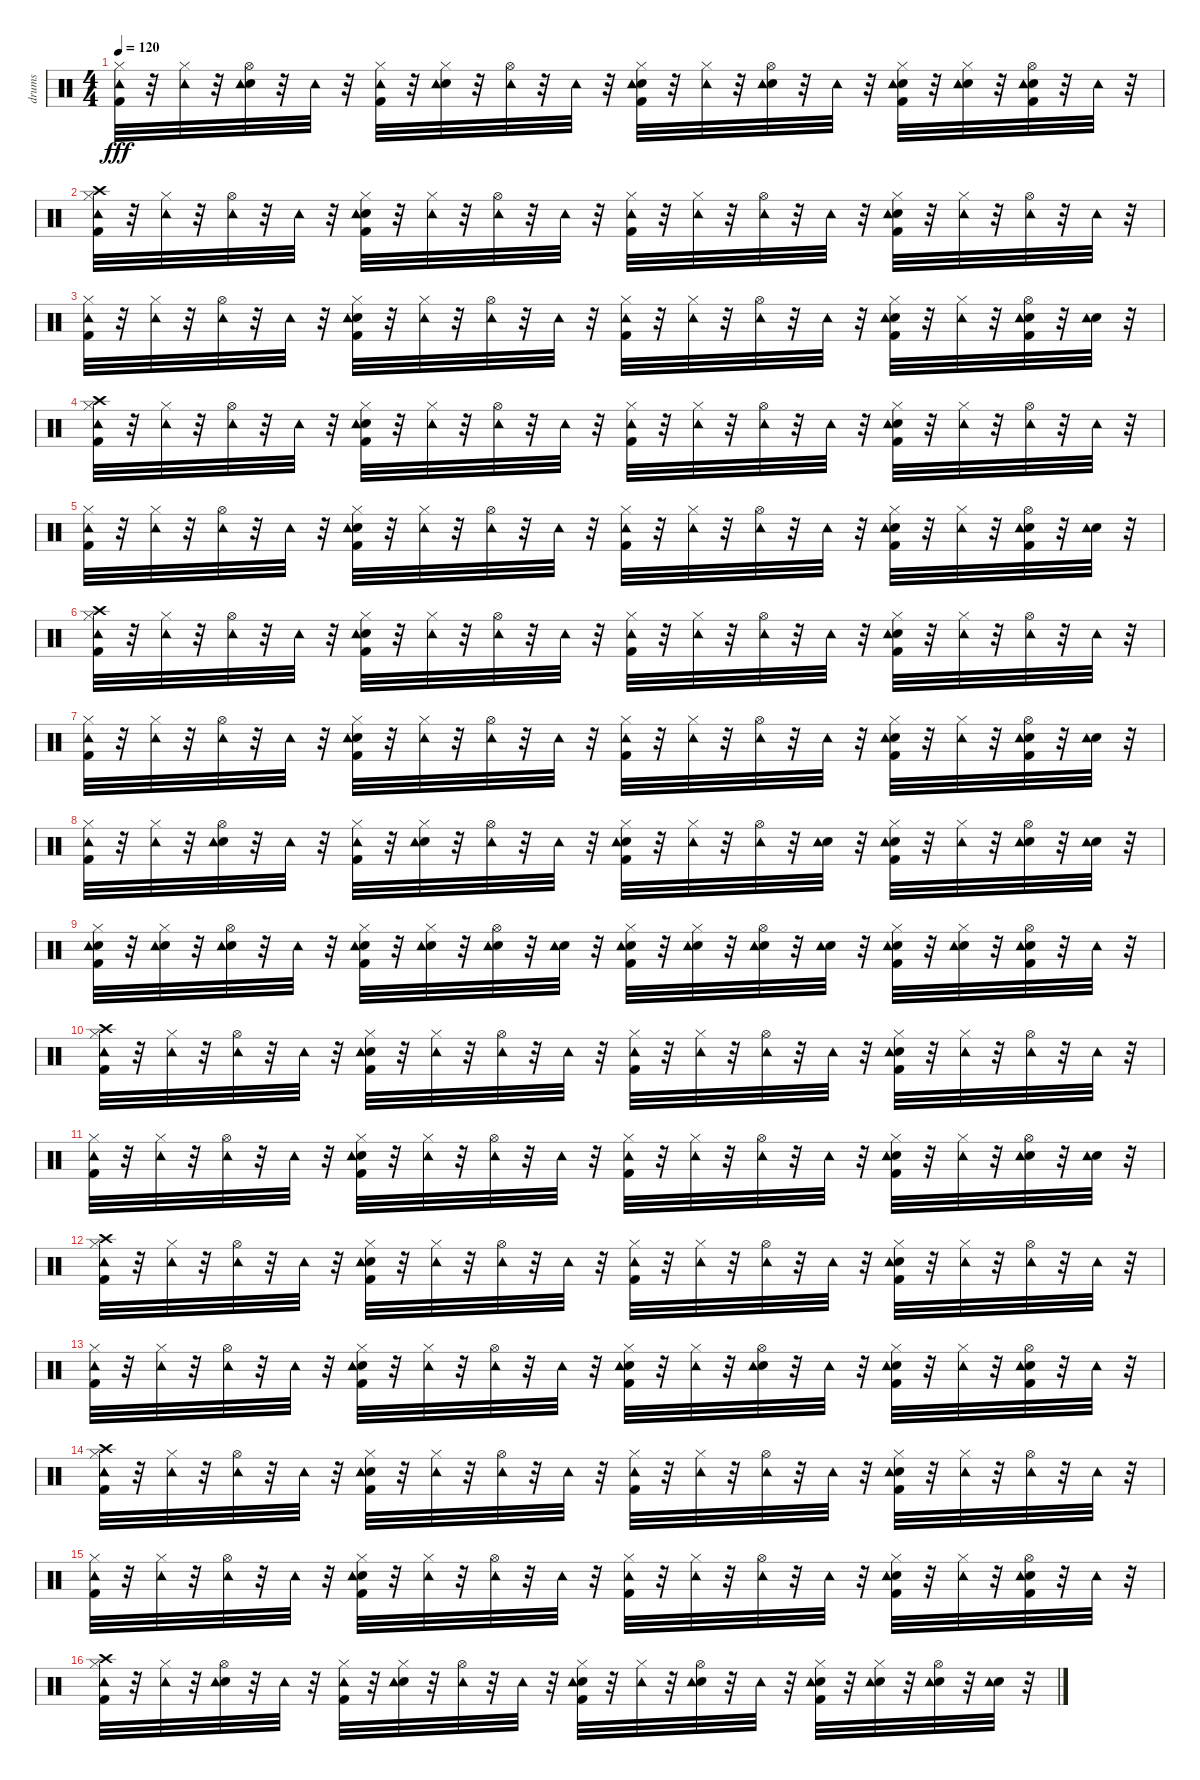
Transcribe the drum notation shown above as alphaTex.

\track ("drums" "drums") {instrument percussion}
\staff {score}
\articulation defaults
\ts (4 4)
\tempo 120
\clef neutral
\ks c
("Kick (hit) 2" "Hi-Hat (closed)" "Tambourine (hit)").32{dy fff} r.32 ("Hi-Hat (closed)" "Tambourine (hit)").32 r.32 ("Snare (hit) 2" "Hi-Hat (open)" "Tambourine (hit)").32 r.32 "Tambourine (hit)".32 r.32 ("Kick (hit) 2" "Hi-Hat (closed)" "Tambourine (hit)").32 r.32 ("Snare (hit) 2" "Hi-Hat (closed)" "Tambourine (hit)").32 r.32 ("Hi-Hat (open)" "Tambourine (hit)").32 r.32 "Tambourine (hit)".32 r.32 ("Kick (hit) 2" "Snare (hit) 2" "Hi-Hat (closed)" "Tambourine (hit)").32 r.32 ("Hi-Hat (closed)" "Tambourine (hit)").32 r.32 ("Snare (hit) 2" "Hi-Hat (open)" "Tambourine (hit)").32 r.32 "Tambourine (hit)".32 r.32 ("Snare (hit) 2" "Kick (hit) 2" "Hi-Hat (closed)" "Tambourine (hit)").32 r.32 ("Snare (hit) 2" "Hi-Hat (closed)" "Tambourine (hit)").32 r.32 ("Kick (hit) 2" "Snare (hit) 2" "Hi-Hat (open)" "Tambourine (hit)").32 r.32 "Tambourine (hit)".32 r.32 |
("Crash high (hit)" "Kick (hit) 2" "Hi-Hat (closed)" "Tambourine (hit)").32 r.32 ("Hi-Hat (closed)" "Tambourine (hit)").32 r.32 ("Hi-Hat (open)" "Tambourine (hit)").32 r.32 "Tambourine (hit)".32 r.32 ("Snare (hit) 2" "Kick (hit) 2" "Hi-Hat (closed)" "Tambourine (hit)").32 r.32 ("Hi-Hat (closed)" "Tambourine (hit)").32 r.32 ("Hi-Hat (open)" "Tambourine (hit)").32 r.32 "Tambourine (hit)".32 r.32 ("Kick (hit) 2" "Hi-Hat (closed)" "Tambourine (hit)").32 r.32 ("Hi-Hat (closed)" "Tambourine (hit)").32 r.32 ("Hi-Hat (open)" "Tambourine (hit)").32 r.32 "Tambourine (hit)".32 r.32 ("Snare (hit) 2" "Kick (hit) 2" "Hi-Hat (closed)" "Tambourine (hit)").32 r.32 ("Hi-Hat (closed)" "Tambourine (hit)").32 r.32 ("Hi-Hat (open)" "Tambourine (hit)").32 r.32 "Tambourine (hit)".32 r.32 |
("Kick (hit) 2" "Hi-Hat (closed)" "Tambourine (hit)").32 r.32 ("Hi-Hat (closed)" "Tambourine (hit)").32 r.32 ("Hi-Hat (open)" "Tambourine (hit)").32 r.32 "Tambourine (hit)".32 r.32 ("Snare (hit) 2" "Kick (hit) 2" "Hi-Hat (closed)" "Tambourine (hit)").32 r.32 ("Hi-Hat (closed)" "Tambourine (hit)").32 r.32 ("Hi-Hat (open)" "Tambourine (hit)").32 r.32 "Tambourine (hit)".32 r.32 ("Kick (hit) 2" "Hi-Hat (closed)" "Tambourine (hit)").32 r.32 ("Hi-Hat (closed)" "Tambourine (hit)").32 r.32 ("Hi-Hat (open)" "Tambourine (hit)").32 r.32 "Tambourine (hit)".32 r.32 ("Snare (hit) 2" "Kick (hit) 2" "Hi-Hat (closed)" "Tambourine (hit)").32 r.32 ("Hi-Hat (closed)" "Tambourine (hit)").32 r.32 ("Kick (hit) 2" "Snare (hit) 2" "Hi-Hat (open)" "Tambourine (hit)").32 r.32 ("Snare (hit) 2" "Tambourine (hit)").32 r.32 |
("Crash high (hit)" "Kick (hit) 2" "Hi-Hat (closed)" "Tambourine (hit)").32 r.32 ("Hi-Hat (closed)" "Tambourine (hit)").32 r.32 ("Hi-Hat (open)" "Tambourine (hit)").32 r.32 "Tambourine (hit)".32 r.32 ("Snare (hit) 2" "Kick (hit) 2" "Hi-Hat (closed)" "Tambourine (hit)").32 r.32 ("Hi-Hat (closed)" "Tambourine (hit)").32 r.32 ("Hi-Hat (open)" "Tambourine (hit)").32 r.32 "Tambourine (hit)".32 r.32 ("Kick (hit) 2" "Hi-Hat (closed)" "Tambourine (hit)").32 r.32 ("Hi-Hat (closed)" "Tambourine (hit)").32 r.32 ("Hi-Hat (open)" "Tambourine (hit)").32 r.32 "Tambourine (hit)".32 r.32 ("Snare (hit) 2" "Kick (hit) 2" "Hi-Hat (closed)" "Tambourine (hit)").32 r.32 ("Hi-Hat (closed)" "Tambourine (hit)").32 r.32 ("Hi-Hat (open)" "Tambourine (hit)").32 r.32 "Tambourine (hit)".32 r.32 |
("Kick (hit) 2" "Hi-Hat (closed)" "Tambourine (hit)").32 r.32 ("Hi-Hat (closed)" "Tambourine (hit)").32 r.32 ("Hi-Hat (open)" "Tambourine (hit)").32 r.32 "Tambourine (hit)".32 r.32 ("Snare (hit) 2" "Kick (hit) 2" "Hi-Hat (closed)" "Tambourine (hit)").32 r.32 ("Hi-Hat (closed)" "Tambourine (hit)").32 r.32 ("Hi-Hat (open)" "Tambourine (hit)").32 r.32 "Tambourine (hit)".32 r.32 ("Kick (hit) 2" "Hi-Hat (closed)" "Tambourine (hit)").32 r.32 ("Hi-Hat (closed)" "Tambourine (hit)").32 r.32 ("Hi-Hat (open)" "Tambourine (hit)").32 r.32 "Tambourine (hit)".32 r.32 ("Snare (hit) 2" "Kick (hit) 2" "Hi-Hat (closed)" "Tambourine (hit)").32 r.32 ("Hi-Hat (closed)" "Tambourine (hit)").32 r.32 ("Kick (hit) 2" "Snare (hit) 2" "Hi-Hat (open)" "Tambourine (hit)").32 r.32 ("Snare (hit) 2" "Tambourine (hit)").32 r.32 |
("Crash high (hit)" "Kick (hit) 2" "Hi-Hat (closed)" "Tambourine (hit)").32 r.32 ("Hi-Hat (closed)" "Tambourine (hit)").32 r.32 ("Hi-Hat (open)" "Tambourine (hit)").32 r.32 "Tambourine (hit)".32 r.32 ("Snare (hit) 2" "Kick (hit) 2" "Hi-Hat (closed)" "Tambourine (hit)").32 r.32 ("Hi-Hat (closed)" "Tambourine (hit)").32 r.32 ("Hi-Hat (open)" "Tambourine (hit)").32 r.32 "Tambourine (hit)".32 r.32 ("Kick (hit) 2" "Hi-Hat (closed)" "Tambourine (hit)").32 r.32 ("Hi-Hat (closed)" "Tambourine (hit)").32 r.32 ("Hi-Hat (open)" "Tambourine (hit)").32 r.32 "Tambourine (hit)".32 r.32 ("Snare (hit) 2" "Kick (hit) 2" "Hi-Hat (closed)" "Tambourine (hit)").32 r.32 ("Hi-Hat (closed)" "Tambourine (hit)").32 r.32 ("Hi-Hat (open)" "Tambourine (hit)").32 r.32 "Tambourine (hit)".32 r.32 |
("Kick (hit) 2" "Hi-Hat (closed)" "Tambourine (hit)").32 r.32 ("Hi-Hat (closed)" "Tambourine (hit)").32 r.32 ("Hi-Hat (open)" "Tambourine (hit)").32 r.32 "Tambourine (hit)".32 r.32 ("Snare (hit) 2" "Kick (hit) 2" "Hi-Hat (closed)" "Tambourine (hit)").32 r.32 ("Hi-Hat (closed)" "Tambourine (hit)").32 r.32 ("Hi-Hat (open)" "Tambourine (hit)").32 r.32 "Tambourine (hit)".32 r.32 ("Kick (hit) 2" "Hi-Hat (closed)" "Tambourine (hit)").32 r.32 ("Hi-Hat (closed)" "Tambourine (hit)").32 r.32 ("Hi-Hat (open)" "Tambourine (hit)").32 r.32 "Tambourine (hit)".32 r.32 ("Snare (hit) 2" "Kick (hit) 2" "Hi-Hat (closed)" "Tambourine (hit)").32 r.32 ("Hi-Hat (closed)" "Tambourine (hit)").32 r.32 ("Kick (hit) 2" "Snare (hit) 2" "Hi-Hat (open)" "Tambourine (hit)").32 r.32 ("Snare (hit) 2" "Tambourine (hit)").32 r.32 |
("Kick (hit) 2" "Hi-Hat (closed)" "Tambourine (hit)").32 r.32 ("Hi-Hat (closed)" "Tambourine (hit)").32 r.32 ("Snare (hit) 2" "Hi-Hat (open)" "Tambourine (hit)").32 r.32 "Tambourine (hit)".32 r.32 ("Kick (hit) 2" "Hi-Hat (closed)" "Tambourine (hit)").32 r.32 ("Snare (hit) 2" "Hi-Hat (closed)" "Tambourine (hit)").32 r.32 ("Hi-Hat (open)" "Tambourine (hit)").32 r.32 "Tambourine (hit)".32 r.32 ("Kick (hit) 2" "Snare (hit) 2" "Hi-Hat (closed)" "Tambourine (hit)").32 r.32 ("Hi-Hat (closed)" "Tambourine (hit)").32 r.32 ("Hi-Hat (open)" "Tambourine (hit)").32 r.32 ("Snare (hit) 2" "Tambourine (hit)").32 r.32 ("Snare (hit) 2" "Kick (hit) 2" "Hi-Hat (closed)" "Tambourine (hit)").32 r.32 ("Hi-Hat (closed)" "Tambourine (hit)").32 r.32 ("Hi-Hat (open)" "Snare (hit) 2" "Tambourine (hit)").32 r.32 ("Snare (hit) 2" "Tambourine (hit)").32 r.32 |
("Kick (hit) 2" "Snare (hit) 2" "Hi-Hat (closed)" "Tambourine (hit)").32 r.32 ("Snare (hit) 2" "Hi-Hat (closed)" "Tambourine (hit)").32 r.32 ("Snare (hit) 2" "Hi-Hat (open)" "Tambourine (hit)").32 r.32 "Tambourine (hit)".32 r.32 ("Snare (hit) 2" "Kick (hit) 2" "Hi-Hat (closed)" "Tambourine (hit)").32 r.32 ("Snare (hit) 2" "Hi-Hat (closed)" "Tambourine (hit)").32 r.32 ("Snare (hit) 2" "Hi-Hat (open)" "Tambourine (hit)").32 r.32 ("Snare (hit) 2" "Tambourine (hit)").32 r.32 ("Kick (hit) 2" "Snare (hit) 2" "Hi-Hat (closed)" "Tambourine (hit)").32 r.32 ("Snare (hit) 2" "Hi-Hat (closed)" "Tambourine (hit)").32 r.32 ("Snare (hit) 2" "Hi-Hat (open)" "Tambourine (hit)").32 r.32 ("Snare (hit) 2" "Tambourine (hit)").32 r.32 ("Snare (hit) 2" "Kick (hit) 2" "Hi-Hat (closed)" "Tambourine (hit)").32 r.32 ("Snare (hit) 2" "Hi-Hat (closed)" "Tambourine (hit)").32 r.32 ("Kick (hit) 2" "Snare (hit) 2" "Hi-Hat (open)" "Tambourine (hit)").32 r.32 "Tambourine (hit)".32 r.32 |
("Crash high (hit)" "Kick (hit) 2" "Hi-Hat (closed)" "Tambourine (hit)").32 r.32 ("Hi-Hat (closed)" "Tambourine (hit)").32 r.32 ("Hi-Hat (open)" "Tambourine (hit)").32 r.32 "Tambourine (hit)".32 r.32 ("Snare (hit) 2" "Kick (hit) 2" "Hi-Hat (closed)" "Tambourine (hit)").32 r.32 ("Hi-Hat (closed)" "Tambourine (hit)").32 r.32 ("Hi-Hat (open)" "Tambourine (hit)").32 r.32 "Tambourine (hit)".32 r.32 ("Kick (hit) 2" "Hi-Hat (closed)" "Tambourine (hit)").32 r.32 ("Hi-Hat (closed)" "Tambourine (hit)").32 r.32 ("Hi-Hat (open)" "Tambourine (hit)").32 r.32 "Tambourine (hit)".32 r.32 ("Snare (hit) 2" "Kick (hit) 2" "Hi-Hat (closed)" "Tambourine (hit)").32 r.32 ("Hi-Hat (closed)" "Tambourine (hit)").32 r.32 ("Hi-Hat (open)" "Tambourine (hit)").32 r.32 "Tambourine (hit)".32 r.32 |
("Kick (hit) 2" "Hi-Hat (closed)" "Tambourine (hit)").32 r.32 ("Hi-Hat (closed)" "Tambourine (hit)").32 r.32 ("Hi-Hat (open)" "Tambourine (hit)").32 r.32 "Tambourine (hit)".32 r.32 ("Snare (hit) 2" "Kick (hit) 2" "Hi-Hat (closed)" "Tambourine (hit)").32 r.32 ("Hi-Hat (closed)" "Tambourine (hit)").32 r.32 ("Hi-Hat (open)" "Tambourine (hit)").32 r.32 "Tambourine (hit)".32 r.32 ("Kick (hit) 2" "Hi-Hat (closed)" "Tambourine (hit)").32 r.32 ("Hi-Hat (closed)" "Tambourine (hit)").32 r.32 ("Hi-Hat (open)" "Tambourine (hit)").32 r.32 "Tambourine (hit)".32 r.32 ("Snare (hit) 2" "Kick (hit) 2" "Hi-Hat (closed)" "Tambourine (hit)").32 r.32 ("Hi-Hat (closed)" "Tambourine (hit)").32 r.32 ("Snare (hit) 2" "Hi-Hat (open)" "Tambourine (hit)").32 r.32 ("Snare (hit) 2" "Tambourine (hit)").32 r.32 |
("Crash high (hit)" "Kick (hit) 2" "Hi-Hat (closed)" "Tambourine (hit)").32 r.32 ("Hi-Hat (closed)" "Tambourine (hit)").32 r.32 ("Hi-Hat (open)" "Tambourine (hit)").32 r.32 "Tambourine (hit)".32 r.32 ("Kick (hit) 2" "Snare (hit) 2" "Hi-Hat (closed)" "Tambourine (hit)").32 r.32 ("Hi-Hat (closed)" "Tambourine (hit)").32 r.32 ("Hi-Hat (open)" "Tambourine (hit)").32 r.32 "Tambourine (hit)".32 r.32 ("Kick (hit) 2" "Hi-Hat (closed)" "Tambourine (hit)").32 r.32 ("Hi-Hat (closed)" "Tambourine (hit)").32 r.32 ("Hi-Hat (open)" "Tambourine (hit)").32 r.32 "Tambourine (hit)".32 r.32 ("Kick (hit) 2" "Snare (hit) 2" "Hi-Hat (closed)" "Tambourine (hit)").32 r.32 ("Hi-Hat (closed)" "Tambourine (hit)").32 r.32 ("Hi-Hat (open)" "Tambourine (hit)").32 r.32 "Tambourine (hit)".32 r.32 |
("Kick (hit) 2" "Hi-Hat (closed)" "Tambourine (hit)").32 r.32 ("Hi-Hat (closed)" "Tambourine (hit)").32 r.32 ("Hi-Hat (open)" "Tambourine (hit)").32 r.32 "Tambourine (hit)".32 r.32 ("Kick (hit) 2" "Snare (hit) 2" "Hi-Hat (closed)" "Tambourine (hit)").32 r.32 ("Hi-Hat (closed)" "Tambourine (hit)").32 r.32 ("Hi-Hat (open)" "Tambourine (hit)").32 r.32 "Tambourine (hit)".32 r.32 ("Kick (hit) 2" "Snare (hit) 2" "Hi-Hat (closed)" "Tambourine (hit)").32 r.32 ("Hi-Hat (closed)" "Tambourine (hit)").32 r.32 ("Snare (hit) 2" "Hi-Hat (open)" "Tambourine (hit)").32 r.32 "Tambourine (hit)".32 r.32 ("Kick (hit) 2" "Snare (hit) 2" "Hi-Hat (closed)" "Tambourine (hit)").32 r.32 ("Hi-Hat (closed)" "Tambourine (hit)").32 r.32 ("Kick (hit) 2" "Snare (hit) 2" "Hi-Hat (open)" "Tambourine (hit)").32 r.32 "Tambourine (hit)".32 r.32 |
("Crash high (hit)" "Kick (hit) 2" "Hi-Hat (closed)" "Tambourine (hit)").32 r.32 ("Hi-Hat (closed)" "Tambourine (hit)").32 r.32 ("Hi-Hat (open)" "Tambourine (hit)").32 r.32 "Tambourine (hit)".32 r.32 ("Snare (hit) 2" "Kick (hit) 2" "Hi-Hat (closed)" "Tambourine (hit)").32 r.32 ("Hi-Hat (closed)" "Tambourine (hit)").32 r.32 ("Hi-Hat (open)" "Tambourine (hit)").32 r.32 "Tambourine (hit)".32 r.32 ("Kick (hit) 2" "Hi-Hat (closed)" "Tambourine (hit)").32 r.32 ("Hi-Hat (closed)" "Tambourine (hit)").32 r.32 ("Hi-Hat (open)" "Tambourine (hit)").32 r.32 "Tambourine (hit)".32 r.32 ("Snare (hit) 2" "Kick (hit) 2" "Hi-Hat (closed)" "Tambourine (hit)").32 r.32 ("Hi-Hat (closed)" "Tambourine (hit)").32 r.32 ("Hi-Hat (open)" "Tambourine (hit)").32 r.32 "Tambourine (hit)".32 r.32 |
("Kick (hit) 2" "Hi-Hat (closed)" "Tambourine (hit)").32 r.32 ("Hi-Hat (closed)" "Tambourine (hit)").32 r.32 ("Hi-Hat (open)" "Tambourine (hit)").32 r.32 "Tambourine (hit)".32 r.32 ("Snare (hit) 2" "Kick (hit) 2" "Hi-Hat (closed)" "Tambourine (hit)").32 r.32 ("Hi-Hat (closed)" "Tambourine (hit)").32 r.32 ("Hi-Hat (open)" "Tambourine (hit)").32 r.32 "Tambourine (hit)".32 r.32 ("Kick (hit) 2" "Hi-Hat (closed)" "Tambourine (hit)").32 r.32 ("Hi-Hat (closed)" "Tambourine (hit)").32 r.32 ("Hi-Hat (open)" "Tambourine (hit)").32 r.32 "Tambourine (hit)".32 r.32 ("Snare (hit) 2" "Kick (hit) 2" "Hi-Hat (closed)" "Tambourine (hit)").32 r.32 ("Hi-Hat (closed)" "Tambourine (hit)").32 r.32 ("Kick (hit) 2" "Snare (hit) 2" "Hi-Hat (open)" "Tambourine (hit)").32 r.32 "Tambourine (hit)".32 r.32 |
("Crash high (hit)" "Kick (hit) 2" "Hi-Hat (closed)" "Tambourine (hit)").32 r.32 ("Hi-Hat (closed)" "Tambourine (hit)").32 r.32 ("Snare (hit) 2" "Hi-Hat (open)" "Tambourine (hit)").32 r.32 "Tambourine (hit)".32 r.32 ("Kick (hit) 2" "Hi-Hat (closed)" "Tambourine (hit)").32 r.32 ("Snare (hit) 2" "Hi-Hat (closed)" "Tambourine (hit)").32 r.32 ("Hi-Hat (open)" "Tambourine (hit)").32 r.32 "Tambourine (hit)".32 r.32 ("Kick (hit) 2" "Snare (hit) 2" "Hi-Hat (closed)" "Tambourine (hit)").32 r.32 ("Hi-Hat (closed)" "Tambourine (hit)").32 r.32 ("Snare (hit) 2" "Hi-Hat (open)" "Tambourine (hit)").32 r.32 "Tambourine (hit)".32 r.32 ("Kick (hit) 2" "Snare (hit) 2" "Hi-Hat (closed)" "Tambourine (hit)").32 r.32 ("Snare (hit) 2" "Hi-Hat (closed)" "Tambourine (hit)").32 r.32 ("Snare (hit) 2" "Hi-Hat (open)" "Tambourine (hit)").32 r.32 ("Snare (hit) 2" "Tambourine (hit)").32 r.32
